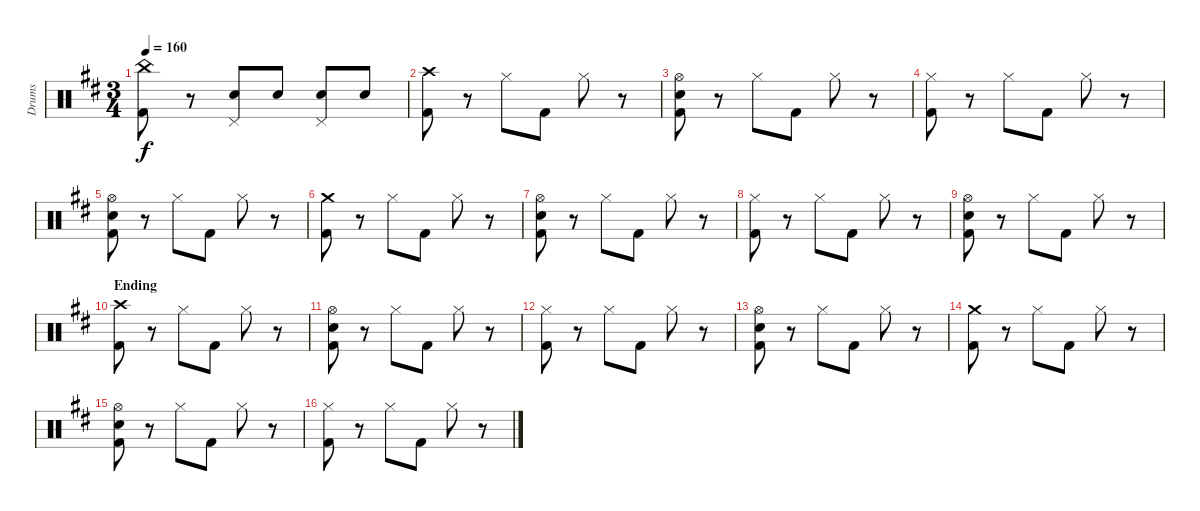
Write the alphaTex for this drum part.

\track ("Drums" "Drums") {instrument percussion}
\staff {score}
\articulation defaults
\ts (3 4)
\tempo 160
\clef neutral
\ks bminor
("China (hit)" "Kick (hit) 2").8{dy f} r.8 ("Pedal Hi-Hat (hit)" "Snare (hit) 2").8 "Snare (hit) 2".8 ("Pedal Hi-Hat (hit)" "Snare (hit) 2").8 "Snare (hit) 2".8 |
("Crash high (hit)" "Kick (hit) 2").8 r.8 "Hi-Hat (closed)".8 "Kick (hit) 2".8 "Hi-Hat (closed)".8 r.8 |
("Hi-Hat (open)" "Snare (hit) 2" "Kick (hit) 2").8 r.8 "Hi-Hat (closed)".8 "Kick (hit) 2".8 "Hi-Hat (closed)".8 r.8 |
("Hi-Hat (closed)" "Kick (hit) 2").8 r.8 "Hi-Hat (closed)".8 "Kick (hit) 2".8 "Hi-Hat (closed)".8 r.8 |
("Hi-Hat (open)" "Snare (hit) 2" "Kick (hit) 2").8 r.8 "Hi-Hat (closed)".8 "Kick (hit) 2".8 "Hi-Hat (closed)".8 r.8 |
("Crash medium (hit)" "Kick (hit) 2").8 r.8 "Hi-Hat (closed)".8 "Kick (hit) 2".8 "Hi-Hat (closed)".8 r.8 |
("Hi-Hat (open)" "Snare (hit) 2" "Kick (hit) 2").8 r.8 "Hi-Hat (closed)".8 "Kick (hit) 2".8 "Hi-Hat (closed)".8 r.8 |
("Hi-Hat (closed)" "Kick (hit) 2").8 r.8 "Hi-Hat (closed)".8 "Kick (hit) 2".8 "Hi-Hat (closed)".8 r.8 |
("Hi-Hat (open)" "Snare (hit) 2" "Kick (hit) 2").8 r.8 "Hi-Hat (closed)".8 "Kick (hit) 2".8 "Hi-Hat (closed)".8 r.8 |
\section ("" "Ending")
("Crash high (hit)" "Kick (hit) 2").8 r.8 "Hi-Hat (closed)".8 "Kick (hit) 2".8 "Hi-Hat (closed)".8 r.8 |
("Hi-Hat (open)" "Snare (hit) 2" "Kick (hit) 2").8 r.8 "Hi-Hat (closed)".8 "Kick (hit) 2".8 "Hi-Hat (closed)".8 r.8 |
("Hi-Hat (closed)" "Kick (hit) 2").8 r.8 "Hi-Hat (closed)".8 "Kick (hit) 2".8 "Hi-Hat (closed)".8 r.8 |
("Hi-Hat (open)" "Snare (hit) 2" "Kick (hit) 2").8 r.8 "Hi-Hat (closed)".8 "Kick (hit) 2".8 "Hi-Hat (closed)".8 r.8 |
("Crash medium (hit)" "Kick (hit) 2").8 r.8 "Hi-Hat (closed)".8 "Kick (hit) 2".8 "Hi-Hat (closed)".8 r.8 |
("Hi-Hat (open)" "Snare (hit) 2" "Kick (hit) 2").8 r.8 "Hi-Hat (closed)".8 "Kick (hit) 2".8 "Hi-Hat (closed)".8 r.8 |
("Hi-Hat (closed)" "Kick (hit) 2").8 r.8 "Hi-Hat (closed)".8 "Kick (hit) 2".8 "Hi-Hat (closed)".8 r.8
